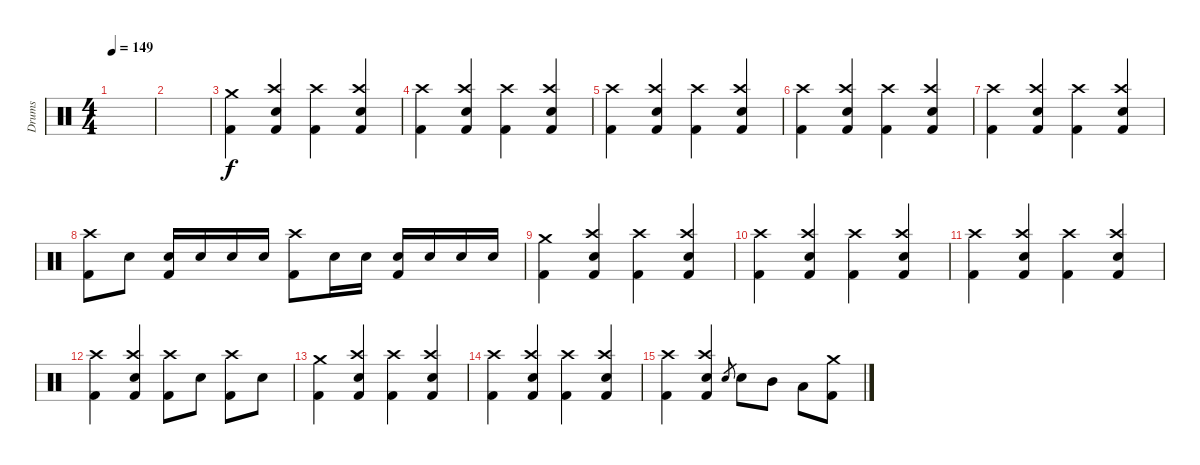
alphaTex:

\track ("Drums" "Drums") {instrument percussion}
\staff {score}
\articulation defaults
\ts (4 4)
\tempo 149
\clef neutral
\ks c
|
|
("Crash medium (hit)" "Kick (hit) 2").4 ("Crash high (hit)" "Electric Snare (hit)" "Kick (hit) 2").4 ("Crash high (hit)" "Kick (hit) 2").4 ("Crash high (hit)" "Electric Snare (hit)" "Kick (hit) 2").4 |
("Crash high (hit)" "Kick (hit) 2").4 ("Crash high (hit)" "Electric Snare (hit)" "Kick (hit) 2").4 ("Crash high (hit)" "Kick (hit) 2").4 ("Crash high (hit)" "Electric Snare (hit)" "Kick (hit) 2").4 |
("Crash high (hit)" "Kick (hit) 2").4 ("Crash high (hit)" "Electric Snare (hit)" "Kick (hit) 2").4 ("Crash high (hit)" "Kick (hit) 2").4 ("Crash high (hit)" "Electric Snare (hit)" "Kick (hit) 2").4 |
("Crash high (hit)" "Kick (hit) 2").4 ("Crash high (hit)" "Electric Snare (hit)" "Kick (hit) 2").4 ("Crash high (hit)" "Kick (hit) 2").4 ("Crash high (hit)" "Electric Snare (hit)" "Kick (hit) 2").4 |
("Crash high (hit)" "Kick (hit) 2").4 ("Crash high (hit)" "Electric Snare (hit)" "Kick (hit) 2").4 ("Crash high (hit)" "Kick (hit) 2").4 ("Crash high (hit)" "Electric Snare (hit)" "Kick (hit) 2").4 |
("Crash high (hit)" "Kick (hit) 2").8 "Electric Snare (hit)".8 ("Electric Snare (hit)" "Kick (hit) 2").16 "Electric Snare (hit)".16 "Electric Snare (hit)".16 "Electric Snare (hit)".16 ("Crash high (hit)" "Kick (hit) 2").8 "Electric Snare (hit)".16 "Electric Snare (hit)".16 ("Electric Snare (hit)" "Kick (hit) 2").16 "Electric Snare (hit)".16 "Electric Snare (hit)".16 "Electric Snare (hit)".16 |
("Crash medium (hit)" "Kick (hit) 2").4 ("Crash high (hit)" "Electric Snare (hit)" "Kick (hit) 2").4 ("Crash high (hit)" "Kick (hit) 2").4 ("Crash high (hit)" "Electric Snare (hit)" "Kick (hit) 2").4 |
("Crash high (hit)" "Kick (hit) 2").4 ("Crash high (hit)" "Electric Snare (hit)" "Kick (hit) 2").4 ("Crash high (hit)" "Kick (hit) 2").4 ("Crash high (hit)" "Electric Snare (hit)" "Kick (hit) 2").4 |
("Crash high (hit)" "Kick (hit) 2").4 ("Crash high (hit)" "Electric Snare (hit)" "Kick (hit) 2").4 ("Crash high (hit)" "Kick (hit) 2").4 ("Crash high (hit)" "Electric Snare (hit)" "Kick (hit) 2").4 |
("Crash high (hit)" "Kick (hit) 2").4 ("Crash high (hit)" "Electric Snare (hit)" "Kick (hit) 2").4 ("Crash high (hit)" "Kick (hit) 2").8 "Electric Snare (hit)".8 ("Crash high (hit)" "Kick (hit) 2").8 "Electric Snare (hit)".8 |
("Crash medium (hit)" "Kick (hit) 2").4 ("Crash high (hit)" "Electric Snare (hit)" "Kick (hit) 2").4 ("Crash high (hit)" "Kick (hit) 2").4 ("Crash high (hit)" "Electric Snare (hit)" "Kick (hit) 2").4 |
("Crash high (hit)" "Kick (hit) 2").4 ("Crash high (hit)" "Electric Snare (hit)" "Kick (hit) 2").4 ("Crash high (hit)" "Kick (hit) 2").4 ("Crash high (hit)" "Electric Snare (hit)" "Kick (hit) 2").4 |
("Crash high (hit)" "Kick (hit) 2").4 ("Crash high (hit)" "Electric Snare (hit)" "Kick (hit) 2").4 "Electric Snare (hit)".8{gr} "Electric Snare (hit)".8 "Mid Tom (hit)".8 "Low Tom (hit)".8 ("Crash medium (hit)" "Kick (hit) 2").8
